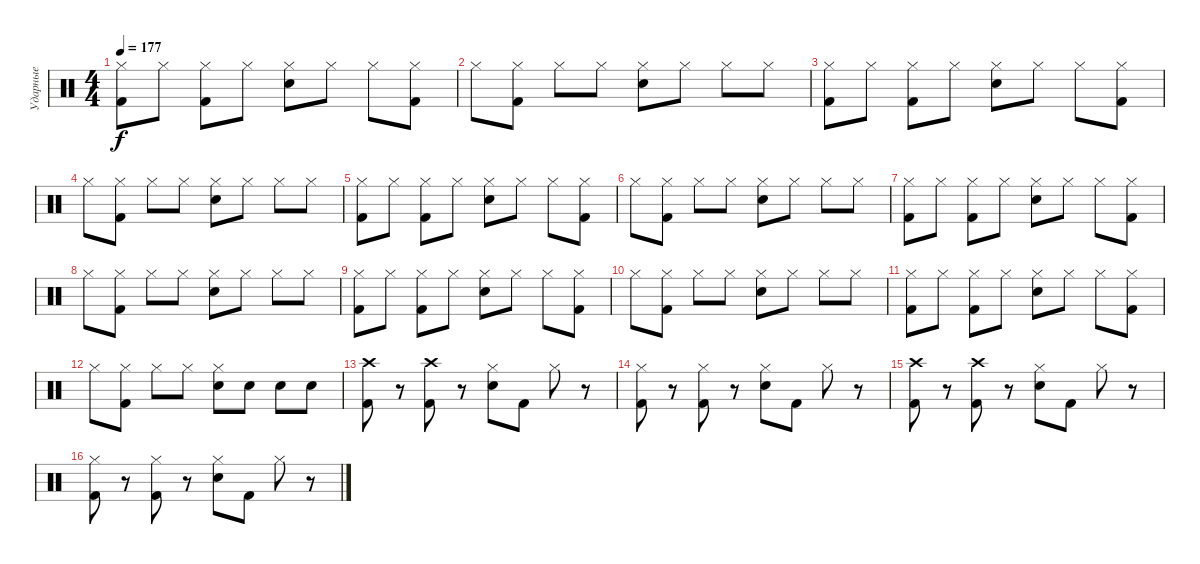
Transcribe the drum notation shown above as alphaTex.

\track ("Ударные" "Ударные") {instrument percussion}
\staff {score}
\articulation defaults
\ts (4 4)
\tempo 177
\clef neutral
\ks c
("Kick (hit) 2" "Hi-Hat (closed)").8{dy f} "Hi-Hat (closed)".8 ("Kick (hit) 2" "Hi-Hat (closed)").8 "Hi-Hat (closed)".8 ("Electric Snare (hit)" "Hi-Hat (closed)").8 "Hi-Hat (closed)".8 "Hi-Hat (closed)".8 ("Kick (hit) 2" "Hi-Hat (closed)").8 |
"Hi-Hat (closed)".8 ("Kick (hit) 2" "Hi-Hat (closed)").8 "Hi-Hat (closed)".8 "Hi-Hat (closed)".8 ("Electric Snare (hit)" "Hi-Hat (closed)").8 "Hi-Hat (closed)".8 "Hi-Hat (closed)".8 "Hi-Hat (closed)".8 |
("Kick (hit) 2" "Hi-Hat (closed)").8 "Hi-Hat (closed)".8 ("Kick (hit) 2" "Hi-Hat (closed)").8 "Hi-Hat (closed)".8 ("Electric Snare (hit)" "Hi-Hat (closed)").8 "Hi-Hat (closed)".8 "Hi-Hat (closed)".8 ("Kick (hit) 2" "Hi-Hat (closed)").8 |
"Hi-Hat (closed)".8 ("Kick (hit) 2" "Hi-Hat (closed)").8 "Hi-Hat (closed)".8 "Hi-Hat (closed)".8 ("Electric Snare (hit)" "Hi-Hat (closed)").8 "Hi-Hat (closed)".8 "Hi-Hat (closed)".8 "Hi-Hat (closed)".8 |
("Kick (hit) 2" "Hi-Hat (closed)").8 "Hi-Hat (closed)".8 ("Kick (hit) 2" "Hi-Hat (closed)").8 "Hi-Hat (closed)".8 ("Electric Snare (hit)" "Hi-Hat (closed)").8 "Hi-Hat (closed)".8 "Hi-Hat (closed)".8 ("Kick (hit) 2" "Hi-Hat (closed)").8 |
"Hi-Hat (closed)".8 ("Kick (hit) 2" "Hi-Hat (closed)").8 "Hi-Hat (closed)".8 "Hi-Hat (closed)".8 ("Electric Snare (hit)" "Hi-Hat (closed)").8 "Hi-Hat (closed)".8 "Hi-Hat (closed)".8 "Hi-Hat (closed)".8 |
("Kick (hit) 2" "Hi-Hat (closed)").8 "Hi-Hat (closed)".8 ("Kick (hit) 2" "Hi-Hat (closed)").8 "Hi-Hat (closed)".8 ("Electric Snare (hit)" "Hi-Hat (closed)").8 "Hi-Hat (closed)".8 "Hi-Hat (closed)".8 ("Kick (hit) 2" "Hi-Hat (closed)").8 |
"Hi-Hat (closed)".8 ("Kick (hit) 2" "Hi-Hat (closed)").8 "Hi-Hat (closed)".8 "Hi-Hat (closed)".8 ("Electric Snare (hit)" "Hi-Hat (closed)").8 "Hi-Hat (closed)".8 "Hi-Hat (closed)".8 "Hi-Hat (closed)".8 |
("Kick (hit) 2" "Hi-Hat (closed)").8 "Hi-Hat (closed)".8 ("Kick (hit) 2" "Hi-Hat (closed)").8 "Hi-Hat (closed)".8 ("Electric Snare (hit)" "Hi-Hat (closed)").8 "Hi-Hat (closed)".8 "Hi-Hat (closed)".8 ("Kick (hit) 2" "Hi-Hat (closed)").8 |
"Hi-Hat (closed)".8 ("Kick (hit) 2" "Hi-Hat (closed)").8 "Hi-Hat (closed)".8 "Hi-Hat (closed)".8 ("Electric Snare (hit)" "Hi-Hat (closed)").8 "Hi-Hat (closed)".8 "Hi-Hat (closed)".8 "Hi-Hat (closed)".8 |
("Kick (hit) 2" "Hi-Hat (closed)").8 "Hi-Hat (closed)".8 ("Kick (hit) 2" "Hi-Hat (closed)").8 "Hi-Hat (closed)".8 ("Electric Snare (hit)" "Hi-Hat (closed)").8 "Hi-Hat (closed)".8 "Hi-Hat (closed)".8 ("Kick (hit) 2" "Hi-Hat (closed)").8 |
"Hi-Hat (closed)".8 ("Kick (hit) 2" "Hi-Hat (closed)").8 "Hi-Hat (closed)".8 "Hi-Hat (closed)".8 ("Electric Snare (hit)" "Hi-Hat (closed)").8 "Electric Snare (hit)".8 "Electric Snare (hit)".8 "Electric Snare (hit)".8 |
("Kick (hit) 2" "Crash high (hit)").8 r.8 ("Kick (hit) 2" "Crash high (hit)").8 r.8 ("Electric Snare (hit)" "Hi-Hat (closed)").8 "Kick (hit) 2".8 "Hi-Hat (closed)".8 r.8 |
("Kick (hit) 2" "Hi-Hat (closed)").8 r.8 ("Kick (hit) 2" "Hi-Hat (closed)").8 r.8 ("Electric Snare (hit)" "Hi-Hat (closed)").8 "Kick (hit) 2".8 "Hi-Hat (closed)".8 r.8 |
("Kick (hit) 2" "Crash high (hit)").8 r.8 ("Kick (hit) 2" "Crash high (hit)").8 r.8 ("Electric Snare (hit)" "Hi-Hat (closed)").8 "Kick (hit) 2".8 "Hi-Hat (closed)".8 r.8 |
("Kick (hit) 2" "Hi-Hat (closed)").8 r.8 ("Kick (hit) 2" "Hi-Hat (closed)").8 r.8 ("Electric Snare (hit)" "Hi-Hat (closed)").8 "Kick (hit) 2".8 "Hi-Hat (closed)".8 r.8
